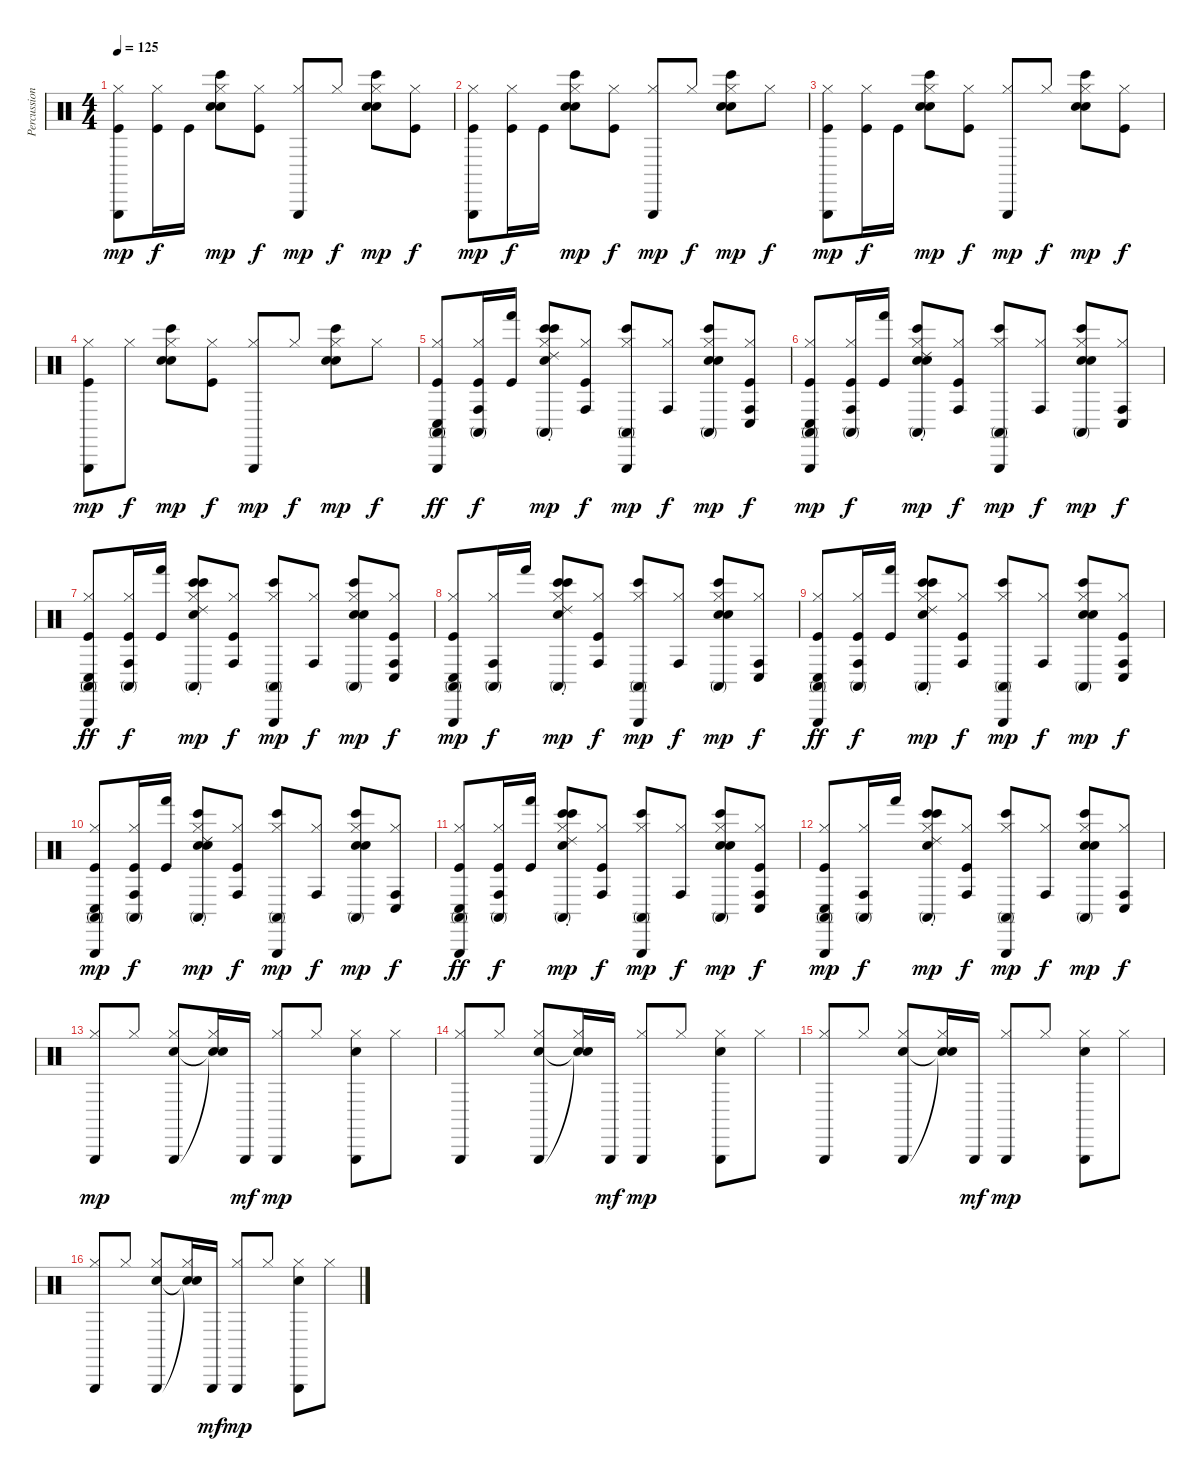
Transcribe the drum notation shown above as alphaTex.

\track ("Percussion" "Percussion") {instrument percussion}
\staff {score}
\articulation defaults
\ts (4 4)
\tempo 125
\clef neutral
\ks c
("Hi-Hat (closed)" "Triangle (hit)" "Kick (hit)").8{dy mp} ("Hi-Hat (closed)" "Kick (hit)").16{dy f} "Kick (hit)".16 ("Hi-Hat (closed)" "Electric Snare (hit)" "Bongo High (hit)" "Electric Snare (hit)").8{dy mp} ("Hi-Hat (closed)" "Kick (hit)").8{dy f} ("Hi-Hat (closed)" "Triangle (hit)").8{dy mp} "Hi-Hat (closed)".8{dy f} ("Hi-Hat (closed)" "Electric Snare (hit)" "Bongo High (hit)" "Electric Snare (hit)").8{dy mp} ("Hi-Hat (closed)" "Kick (hit)").8{dy f} |
("Hi-Hat (closed)" "Triangle (hit)" "Kick (hit)").8{dy mp} ("Hi-Hat (closed)" "Kick (hit)").16{dy f} "Kick (hit)".16 ("Hi-Hat (closed)" "Electric Snare (hit)" "Bongo High (hit)" "Electric Snare (hit)").8{dy mp} ("Hi-Hat (closed)" "Kick (hit)").8{dy f} ("Hi-Hat (closed)" "Triangle (hit)").8{dy mp} "Hi-Hat (closed)".8{dy f} ("Hi-Hat (closed)" "Electric Snare (hit)" "Bongo High (hit)" "Electric Snare (hit)").8{dy mp} "Hi-Hat (closed)".8{dy f} |
("Hi-Hat (closed)" "Triangle (hit)" "Kick (hit)").8{dy mp} ("Hi-Hat (closed)" "Kick (hit)").16{dy f} "Kick (hit)".16 ("Hi-Hat (closed)" "Electric Snare (hit)" "Bongo High (hit)" "Electric Snare (hit)").8{dy mp} ("Hi-Hat (closed)" "Kick (hit)").8{dy f} ("Hi-Hat (closed)" "Triangle (hit)").8{dy mp} "Hi-Hat (closed)".8{dy f} ("Hi-Hat (closed)" "Electric Snare (hit)" "Bongo High (hit)" "Electric Snare (hit)").8{dy mp} ("Hi-Hat (closed)" "Kick (hit)").8{dy f} |
("Hi-Hat (closed)" "Triangle (hit)" "Kick (hit)").8{dy mp} "Hi-Hat (closed)".8{dy f} ("Hi-Hat (closed)" "Electric Snare (hit)" "Bongo High (hit)" "Electric Snare (hit)").8{dy mp} ("Hi-Hat (closed)" "Kick (hit)").8{dy f} ("Hi-Hat (closed)" "Triangle (hit)").8{dy mp} "Hi-Hat (closed)".8{dy f} ("Hi-Hat (closed)" "Electric Snare (hit)" "Bongo High (hit)" "Electric Snare (hit)").8{dy mp} "Hi-Hat (closed)".8{dy f} |
("Hi-Hat (closed)" "Triangle (hit)" "Conga high (mute)" "Conga low (hit)" "Kick (hit)").8{dy ff} ("Hi-Hat (closed)" "Conga high (hit)" "Conga high (mute)" "Kick (hit)").16{dy f} ("Hand (hit)" "Kick (hit)").16 ("Hi-Hat (closed)" "Bongo High (hit)" "Bongo High (hit)" "Electric Snare (hit)" "Conga high (mute)" "Ride (choke) 2").8{dy mp} ("Hi-Hat (closed)" "Conga high (hit)" "Kick (hit)").8{dy f} ("Hi-Hat (closed)" "Triangle (hit)" "Bongo High (hit)" "Conga high (mute)").8{dy mp} ("Hi-Hat (closed)" "Conga high (hit)").8{dy f} ("Hi-Hat (closed)" "Electric Snare (hit)" "Bongo High (hit)" "Electric Snare (hit)" "Conga high (mute)").8{dy mp} ("Hi-Hat (closed)" "Conga low (hit)" "Conga high (hit)" "Kick (hit)").8{dy f} |
("Hi-Hat (closed)" "Triangle (hit)" "Conga high (mute)" "Conga low (hit)" "Kick (hit)").8{dy mp} ("Hi-Hat (closed)" "Conga high (hit)" "Conga high (mute)" "Kick (hit)").16{dy f} ("Hand (hit)" "Kick (hit)").16 ("Hi-Hat (closed)" "Electric Snare (hit)" "Bongo High (hit)" "Electric Snare (hit)" "Conga high (mute)" "Ride (choke) 2").8{dy mp} ("Hi-Hat (closed)" "Conga high (hit)" "Kick (hit)").8{dy f} ("Hi-Hat (closed)" "Triangle (hit)" "Conga high (mute)" "Bongo High (hit)").8{dy mp} ("Hi-Hat (closed)" "Conga high (hit)").8{dy f} ("Hi-Hat (closed)" "Electric Snare (hit)" "Bongo High (hit)" "Electric Snare (hit)" "Conga high (mute)").8{dy mp} ("Hi-Hat (closed)" "Conga high (hit)" "Conga low (hit)").8{dy f} |
("Hi-Hat (closed)" "Triangle (hit)" "Conga high (mute)" "Conga low (hit)" "Kick (hit)").8{dy ff} ("Hi-Hat (closed)" "Conga high (hit)" "Conga high (mute)" "Kick (hit)").16{dy f} ("Hand (hit)" "Kick (hit)").16 ("Hi-Hat (closed)" "Bongo High (hit)" "Bongo High (hit)" "Electric Snare (hit)" "Conga high (mute)" "Ride (choke) 2").8{dy mp} ("Hi-Hat (closed)" "Conga high (hit)" "Kick (hit)").8{dy f} ("Hi-Hat (closed)" "Triangle (hit)" "Bongo High (hit)" "Conga high (mute)").8{dy mp} ("Hi-Hat (closed)" "Conga high (hit)").8{dy f} ("Hi-Hat (closed)" "Electric Snare (hit)" "Bongo High (hit)" "Electric Snare (hit)" "Conga high (mute)").8{dy mp} ("Hi-Hat (closed)" "Conga low (hit)" "Conga high (hit)" "Kick (hit)").8{dy f} |
("Hi-Hat (closed)" "Triangle (hit)" "Conga high (mute)" "Conga low (hit)" "Kick (hit)").8{dy mp} ("Hi-Hat (closed)" "Conga high (hit)" "Conga high (mute)").16{dy f} "Hand (hit)".16 ("Hi-Hat (closed)" "Bongo High (hit)" "Bongo High (hit)" "Electric Snare (hit)" "Conga high (mute)" "Ride (choke) 2").8{dy mp} ("Hi-Hat (closed)" "Conga high (hit)" "Kick (hit)").8{dy f} ("Hi-Hat (closed)" "Triangle (hit)" "Conga high (mute)" "Bongo High (hit)").8{dy mp} ("Hi-Hat (closed)" "Conga high (hit)").8{dy f} ("Hi-Hat (closed)" "Electric Snare (hit)" "Bongo High (hit)" "Electric Snare (hit)" "Conga high (mute)").8{dy mp} ("Hi-Hat (closed)" "Conga high (hit)" "Conga low (hit)").8{dy f} |
("Hi-Hat (closed)" "Triangle (hit)" "Conga high (mute)" "Conga low (hit)" "Kick (hit)").8{dy ff} ("Hi-Hat (closed)" "Conga high (hit)" "Conga high (mute)" "Kick (hit)").16{dy f} ("Hand (hit)" "Kick (hit)").16 ("Hi-Hat (closed)" "Bongo High (hit)" "Bongo High (hit)" "Electric Snare (hit)" "Conga high (mute)" "Ride (choke) 2").8{dy mp} ("Hi-Hat (closed)" "Conga high (hit)" "Kick (hit)").8{dy f} ("Hi-Hat (closed)" "Triangle (hit)" "Bongo High (hit)" "Conga high (mute)").8{dy mp} ("Hi-Hat (closed)" "Conga high (hit)").8{dy f} ("Hi-Hat (closed)" "Electric Snare (hit)" "Bongo High (hit)" "Electric Snare (hit)" "Conga high (mute)").8{dy mp} ("Hi-Hat (closed)" "Conga low (hit)" "Conga high (hit)" "Kick (hit)").8{dy f} |
("Hi-Hat (closed)" "Triangle (hit)" "Conga high (mute)" "Conga low (hit)" "Kick (hit)").8{dy mp} ("Hi-Hat (closed)" "Conga high (hit)" "Conga high (mute)" "Kick (hit)").16{dy f} ("Hand (hit)" "Kick (hit)").16 ("Hi-Hat (closed)" "Electric Snare (hit)" "Bongo High (hit)" "Electric Snare (hit)" "Conga high (mute)" "Ride (choke) 2").8{dy mp} ("Hi-Hat (closed)" "Conga high (hit)" "Kick (hit)").8{dy f} ("Hi-Hat (closed)" "Triangle (hit)" "Conga high (mute)" "Bongo High (hit)").8{dy mp} ("Hi-Hat (closed)" "Conga high (hit)").8{dy f} ("Hi-Hat (closed)" "Electric Snare (hit)" "Bongo High (hit)" "Electric Snare (hit)" "Conga high (mute)").8{dy mp} ("Hi-Hat (closed)" "Conga high (hit)" "Conga low (hit)").8{dy f} |
("Hi-Hat (closed)" "Triangle (hit)" "Conga high (mute)" "Conga low (hit)" "Kick (hit)").8{dy ff} ("Hi-Hat (closed)" "Conga high (hit)" "Conga high (mute)" "Kick (hit)").16{dy f} ("Hand (hit)" "Kick (hit)").16 ("Hi-Hat (closed)" "Bongo High (hit)" "Bongo High (hit)" "Electric Snare (hit)" "Conga high (mute)" "Ride (choke) 2").8{dy mp} ("Hi-Hat (closed)" "Conga high (hit)" "Kick (hit)").8{dy f} ("Hi-Hat (closed)" "Triangle (hit)" "Bongo High (hit)" "Conga high (mute)").8{dy mp} ("Hi-Hat (closed)" "Conga high (hit)").8{dy f} ("Hi-Hat (closed)" "Electric Snare (hit)" "Bongo High (hit)" "Electric Snare (hit)" "Conga high (mute)").8{dy mp} ("Hi-Hat (closed)" "Conga low (hit)" "Conga high (hit)" "Kick (hit)").8{dy f} |
("Hi-Hat (closed)" "Triangle (hit)" "Conga high (mute)" "Conga low (hit)" "Kick (hit)").8{dy mp} ("Hi-Hat (closed)" "Conga high (hit)" "Conga high (mute)").16{dy f} "Hand (hit)".16 ("Hi-Hat (closed)" "Bongo High (hit)" "Bongo High (hit)" "Electric Snare (hit)" "Conga high (mute)" "Ride (choke) 2").8{dy mp} ("Hi-Hat (closed)" "Conga high (hit)" "Kick (hit)").8{dy f} ("Hi-Hat (closed)" "Triangle (hit)" "Conga high (mute)" "Bongo High (hit)").8{dy mp} ("Hi-Hat (closed)" "Conga high (hit)").8{dy f} ("Hi-Hat (closed)" "Electric Snare (hit)" "Bongo High (hit)" "Electric Snare (hit)" "Conga high (mute)").8{dy mp} ("Hi-Hat (closed)" "Conga high (hit)" "Conga low (hit)").8{dy f} |
("Triangle (hit)" "Hi-Hat (closed)").8{dy mp} "Hi-Hat (closed)".8 ("Triangle (hit)" "Snare (hit) 2" "Hi-Hat (closed)").8 ("Snare (hit)"{t} "Snare (hit)"{t} "Hi-Hat (closed)").16 "Triangle (hit)".16{dy mf} ("Triangle (hit)" "Hi-Hat (closed)").8{dy mp} "Hi-Hat (closed)".8 ("Triangle (hit)" "Snare (hit) 2" "Hi-Hat (closed)").8 "Hi-Hat (closed)".8 |
("Triangle (hit)" "Hi-Hat (closed)").8 "Hi-Hat (closed)".8 ("Triangle (hit)" "Snare (hit) 2" "Hi-Hat (closed)").8 ("Snare (hit)"{t} "Snare (hit)"{t} "Hi-Hat (closed)").16 "Triangle (hit)".16{dy mf} ("Triangle (hit)" "Hi-Hat (closed)").8{dy mp} "Hi-Hat (closed)".8 ("Triangle (hit)" "Snare (hit) 2" "Hi-Hat (closed)").8 "Hi-Hat (closed)".8 |
("Triangle (hit)" "Hi-Hat (closed)").8 "Hi-Hat (closed)".8 ("Triangle (hit)" "Snare (hit) 2" "Hi-Hat (closed)").8 ("Snare (hit)"{t} "Snare (hit)"{t} "Hi-Hat (closed)").16 "Triangle (hit)".16{dy mf} ("Triangle (hit)" "Hi-Hat (closed)").8{dy mp} "Hi-Hat (closed)".8 ("Triangle (hit)" "Snare (hit) 2" "Hi-Hat (closed)").8 "Hi-Hat (closed)".8 |
("Triangle (hit)" "Hi-Hat (closed)").8 "Hi-Hat (closed)".8 ("Triangle (hit)" "Snare (hit) 2" "Hi-Hat (closed)").8 ("Snare (hit)"{t} "Snare (hit)"{t} "Hi-Hat (closed)").16 "Triangle (hit)".16{dy mf} ("Triangle (hit)" "Hi-Hat (closed)").8{dy mp} "Hi-Hat (closed)".8 ("Triangle (hit)" "Snare (hit) 2" "Hi-Hat (closed)").8 "Hi-Hat (closed)".8
